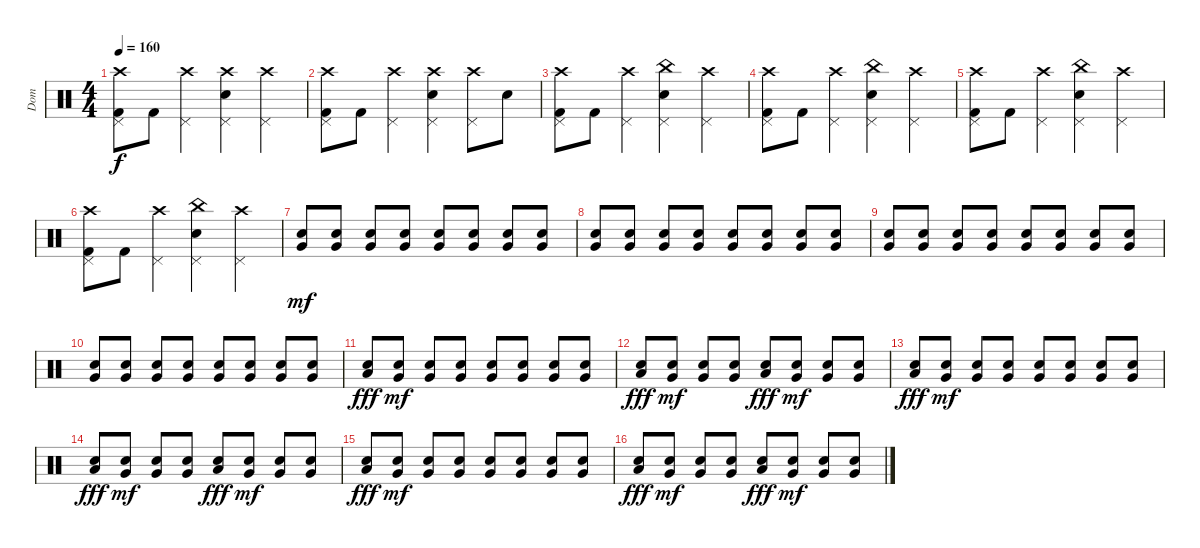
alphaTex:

\track ("Dom" "Dom") {instrument percussion}
\staff {score}
\articulation defaults
\ts (4 4)
\tempo 160
\clef neutral
\ks c
("Crash high (hit)" "Kick (hit) 2" "Pedal Hi-Hat (hit)").8{dy f} "Kick (hit) 2".8 ("Crash high (hit)" "Pedal Hi-Hat (hit)").4 ("Crash high (hit)" "Snare (hit) 2" "Pedal Hi-Hat (hit)").4 ("Crash high (hit)" "Pedal Hi-Hat (hit)").4 |
("Crash high (hit)" "Kick (hit) 2" "Pedal Hi-Hat (hit)").8 "Kick (hit) 2".8 ("Crash high (hit)" "Pedal Hi-Hat (hit)").4 ("Crash high (hit)" "Snare (hit) 2" "Pedal Hi-Hat (hit)").4 ("Crash high (hit)" "Pedal Hi-Hat (hit)").8 "Snare (hit) 2".8 |
("Crash high (hit)" "Kick (hit) 2" "Pedal Hi-Hat (hit)").8 "Kick (hit) 2".8 ("Crash high (hit)" "Pedal Hi-Hat (hit)").4 ("China (hit)" "Snare (hit) 2" "Pedal Hi-Hat (hit)").4 ("Crash high (hit)" "Pedal Hi-Hat (hit)").4 |
("Crash high (hit)" "Kick (hit) 2" "Pedal Hi-Hat (hit)").8 "Kick (hit) 2".8 ("Crash high (hit)" "Pedal Hi-Hat (hit)").4 ("China (hit)" "Snare (hit) 2" "Pedal Hi-Hat (hit)").4 ("Crash high (hit)" "Pedal Hi-Hat (hit)").4 |
("Crash high (hit)" "Kick (hit) 2" "Pedal Hi-Hat (hit)").8 "Kick (hit) 2".8 ("Crash high (hit)" "Pedal Hi-Hat (hit)").4 ("China (hit)" "Snare (hit) 2" "Pedal Hi-Hat (hit)").4 ("Crash high (hit)" "Pedal Hi-Hat (hit)").4 |
("Crash high (hit)" "Kick (hit) 2" "Pedal Hi-Hat (hit)").8 "Kick (hit) 2".8 ("Crash high (hit)" "Pedal Hi-Hat (hit)").4 ("China (hit)" "Snare (hit) 2" "Pedal Hi-Hat (hit)").4 ("Crash high (hit)" "Pedal Hi-Hat (hit)").4 |
("Snare (hit) 2" "Very Low Tom (hit)").8{dy mf} ("Snare (hit) 2" "Very Low Tom (hit)").8 ("Snare (hit) 2" "Very Low Tom (hit)").8 ("Snare (hit) 2" "Very Low Tom (hit)").8 ("Snare (hit) 2" "Very Low Tom (hit)").8 ("Snare (hit) 2" "Very Low Tom (hit)").8 ("Snare (hit) 2" "Very Low Tom (hit)").8 ("Snare (hit) 2" "Very Low Tom (hit)").8 |
("Snare (hit) 2" "Very Low Tom (hit)").8 ("Snare (hit) 2" "Very Low Tom (hit)").8 ("Snare (hit) 2" "Very Low Tom (hit)").8 ("Snare (hit) 2" "Very Low Tom (hit)").8 ("Snare (hit) 2" "Very Low Tom (hit)").8 ("Snare (hit) 2" "Very Low Tom (hit)").8 ("Snare (hit) 2" "Very Low Tom (hit)").8 ("Snare (hit) 2" "Very Low Tom (hit)").8 |
("Snare (hit) 2" "Very Low Tom (hit)").8 ("Snare (hit) 2" "Very Low Tom (hit)").8 ("Snare (hit) 2" "Very Low Tom (hit)").8 ("Snare (hit) 2" "Very Low Tom (hit)").8 ("Snare (hit) 2" "Very Low Tom (hit)").8 ("Snare (hit) 2" "Very Low Tom (hit)").8 ("Snare (hit) 2" "Very Low Tom (hit)").8 ("Snare (hit) 2" "Very Low Tom (hit)").8 |
("Snare (hit) 2" "Very Low Tom (hit)").8 ("Snare (hit) 2" "Very Low Tom (hit)").8 ("Snare (hit) 2" "Very Low Tom (hit)").8 ("Snare (hit) 2" "Very Low Tom (hit)").8 ("Snare (hit) 2" "Very Low Tom (hit)").8 ("Snare (hit) 2" "Very Low Tom (hit)").8 ("Snare (hit) 2" "Very Low Tom (hit)").8 ("Snare (hit) 2" "Very Low Tom (hit)").8 |
("Snare (hit) 2" "Low Floor Tom (hit)").8{dy fff} ("Snare (hit) 2" "Very Low Tom (hit)").8{dy mf} ("Snare (hit) 2" "Very Low Tom (hit)").8 ("Snare (hit) 2" "Very Low Tom (hit)").8 ("Snare (hit) 2" "Very Low Tom (hit)").8 ("Snare (hit) 2" "Very Low Tom (hit)").8 ("Snare (hit) 2" "Very Low Tom (hit)").8 ("Snare (hit) 2" "Very Low Tom (hit)").8 |
("Snare (hit) 2" "Low Floor Tom (hit)").8{dy fff} ("Snare (hit) 2" "Very Low Tom (hit)").8{dy mf} ("Snare (hit) 2" "Very Low Tom (hit)").8 ("Snare (hit) 2" "Very Low Tom (hit)").8 ("Snare (hit) 2" "Low Floor Tom (hit)").8{dy fff} ("Snare (hit) 2" "Very Low Tom (hit)").8{dy mf} ("Snare (hit) 2" "Very Low Tom (hit)").8 ("Snare (hit) 2" "Very Low Tom (hit)").8 |
("Snare (hit) 2" "Low Floor Tom (hit)").8{dy fff} ("Snare (hit) 2" "Very Low Tom (hit)").8{dy mf} ("Snare (hit) 2" "Very Low Tom (hit)").8 ("Snare (hit) 2" "Very Low Tom (hit)").8 ("Snare (hit) 2" "Very Low Tom (hit)").8 ("Snare (hit) 2" "Very Low Tom (hit)").8 ("Snare (hit) 2" "Very Low Tom (hit)").8 ("Snare (hit) 2" "Very Low Tom (hit)").8 |
("Snare (hit) 2" "Low Floor Tom (hit)").8{dy fff} ("Snare (hit) 2" "Very Low Tom (hit)").8{dy mf} ("Snare (hit) 2" "Very Low Tom (hit)").8 ("Snare (hit) 2" "Very Low Tom (hit)").8 ("Snare (hit) 2" "Low Floor Tom (hit)").8{dy fff} ("Snare (hit) 2" "Very Low Tom (hit)").8{dy mf} ("Snare (hit) 2" "Very Low Tom (hit)").8 ("Snare (hit) 2" "Very Low Tom (hit)").8 |
("Snare (hit) 2" "Low Floor Tom (hit)").8{dy fff} ("Snare (hit) 2" "Very Low Tom (hit)").8{dy mf} ("Snare (hit) 2" "Very Low Tom (hit)").8 ("Snare (hit) 2" "Very Low Tom (hit)").8 ("Snare (hit) 2" "Very Low Tom (hit)").8 ("Snare (hit) 2" "Very Low Tom (hit)").8 ("Snare (hit) 2" "Very Low Tom (hit)").8 ("Snare (hit) 2" "Very Low Tom (hit)").8 |
("Snare (hit) 2" "Low Floor Tom (hit)").8{dy fff} ("Snare (hit) 2" "Very Low Tom (hit)").8{dy mf} ("Snare (hit) 2" "Very Low Tom (hit)").8 ("Snare (hit) 2" "Very Low Tom (hit)").8 ("Snare (hit) 2" "Low Floor Tom (hit)").8{dy fff} ("Snare (hit) 2" "Very Low Tom (hit)").8{dy mf} ("Snare (hit) 2" "Very Low Tom (hit)").8 ("Snare (hit) 2" "Very Low Tom (hit)").8
